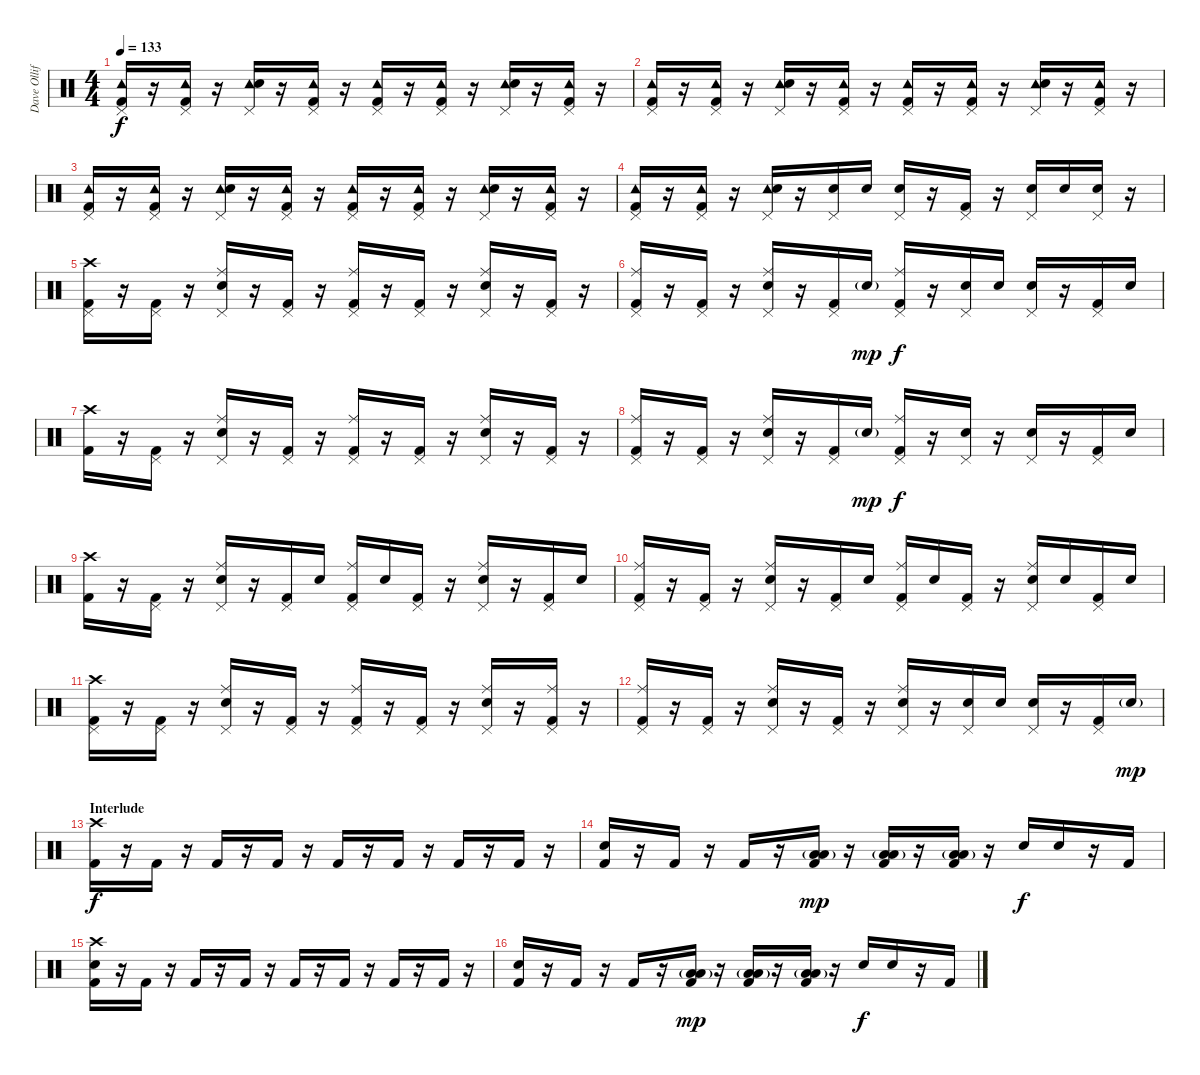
\track ("Dave Olliffe - Drums" "Dave Ollif") {instrument percussion}
\staff {score}
\articulation defaults
\ts (4 4)
\tempo 133
\clef neutral
\ks c
("Tambourine (hit)" "Pedal Hi-Hat (hit)" "Kick (hit) 2").16{dy f} r.16 ("Tambourine (hit)" "Pedal Hi-Hat (hit)" "Kick (hit) 2").16 r.16 ("Tambourine (hit)" "Pedal Hi-Hat (hit)" "Snare (hit) 2").16 r.16 ("Tambourine (hit)" "Pedal Hi-Hat (hit)" "Kick (hit) 2").16 r.16 ("Tambourine (hit)" "Pedal Hi-Hat (hit)" "Kick (hit) 2").16 r.16 ("Tambourine (hit)" "Pedal Hi-Hat (hit)" "Kick (hit) 2").16 r.16 ("Tambourine (hit)" "Pedal Hi-Hat (hit)" "Snare (hit) 2").16 r.16 ("Tambourine (hit)" "Pedal Hi-Hat (hit)" "Kick (hit) 2").16 r.16 |
("Tambourine (hit)" "Pedal Hi-Hat (hit)" "Kick (hit) 2").16 r.16 ("Tambourine (hit)" "Pedal Hi-Hat (hit)" "Kick (hit) 2").16 r.16 ("Tambourine (hit)" "Pedal Hi-Hat (hit)" "Snare (hit) 2").16 r.16 ("Tambourine (hit)" "Pedal Hi-Hat (hit)" "Kick (hit) 2").16 r.16 ("Tambourine (hit)" "Pedal Hi-Hat (hit)" "Kick (hit) 2").16 r.16 ("Tambourine (hit)" "Pedal Hi-Hat (hit)" "Kick (hit) 2").16 r.16 ("Tambourine (hit)" "Pedal Hi-Hat (hit)" "Snare (hit) 2").16 r.16 ("Tambourine (hit)" "Pedal Hi-Hat (hit)" "Kick (hit) 2").16 r.16 |
("Tambourine (hit)" "Pedal Hi-Hat (hit)" "Kick (hit) 2").16 r.16 ("Tambourine (hit)" "Pedal Hi-Hat (hit)" "Kick (hit) 2").16 r.16 ("Tambourine (hit)" "Pedal Hi-Hat (hit)" "Snare (hit) 2").16 r.16 ("Tambourine (hit)" "Pedal Hi-Hat (hit)" "Kick (hit) 2").16 r.16 ("Tambourine (hit)" "Pedal Hi-Hat (hit)" "Kick (hit) 2").16 r.16 ("Tambourine (hit)" "Pedal Hi-Hat (hit)" "Kick (hit) 2").16 r.16 ("Tambourine (hit)" "Pedal Hi-Hat (hit)" "Snare (hit) 2").16 r.16 ("Tambourine (hit)" "Pedal Hi-Hat (hit)" "Kick (hit) 2").16 r.16 |
("Tambourine (hit)" "Pedal Hi-Hat (hit)" "Kick (hit) 2").16 r.16 ("Tambourine (hit)" "Pedal Hi-Hat (hit)" "Kick (hit) 2").16 r.16 ("Tambourine (hit)" "Pedal Hi-Hat (hit)" "Snare (hit) 2").16 r.16 ("Pedal Hi-Hat (hit)" "Snare (hit) 2").16 "Snare (hit) 2".16 ("Pedal Hi-Hat (hit)" "Snare (hit) 2").16 r.16 ("Pedal Hi-Hat (hit)" "Kick (hit) 2").16 r.16 ("Pedal Hi-Hat (hit)" "Snare (hit) 2").16 "Snare (hit) 2".16 ("Pedal Hi-Hat (hit)" "Snare (hit) 2").16 r.16 |
("Crash high (hit)" "Pedal Hi-Hat (hit)" "Kick (hit) 2").16 r.16 ("Pedal Hi-Hat (hit)" "Kick (hit) 2").16 r.16 ("Ride (middle)" "Pedal Hi-Hat (hit)" "Snare (hit) 2").16 r.16 ("Pedal Hi-Hat (hit)" "Kick (hit) 2").16 r.16 ("Ride (middle)" "Pedal Hi-Hat (hit)" "Kick (hit) 2").16 r.16 ("Pedal Hi-Hat (hit)" "Kick (hit) 2").16 r.16 ("Ride (middle)" "Pedal Hi-Hat (hit)" "Snare (hit) 2").16 r.16 ("Pedal Hi-Hat (hit)" "Kick (hit) 2").16 r.16 |
("Ride (middle)" "Pedal Hi-Hat (hit)" "Kick (hit) 2").16 r.16 ("Pedal Hi-Hat (hit)" "Kick (hit) 2").16 r.16 ("Ride (middle)" "Pedal Hi-Hat (hit)" "Snare (hit) 2").16 r.16 ("Pedal Hi-Hat (hit)" "Kick (hit) 2").16 "Snare (hit) 2"{g}.16{dy mp} ("Ride (middle)" "Pedal Hi-Hat (hit)" "Kick (hit) 2").16{dy f} r.16 ("Pedal Hi-Hat (hit)" "Snare (hit) 2").16 "Snare (hit) 2".16 ("Pedal Hi-Hat (hit)" "Snare (hit) 2").16 r.16 ("Pedal Hi-Hat (hit)" "Kick (hit) 2").16 "Snare (hit) 2".16 |
("Crash high (hit)" "Kick (hit) 2").16 r.16 ("Pedal Hi-Hat (hit)" "Kick (hit) 2").16 r.16 ("Ride (middle)" "Pedal Hi-Hat (hit)" "Snare (hit) 2").16 r.16 ("Pedal Hi-Hat (hit)" "Kick (hit) 2").16 r.16 ("Ride (middle)" "Pedal Hi-Hat (hit)" "Kick (hit) 2").16 r.16 ("Pedal Hi-Hat (hit)" "Kick (hit) 2").16 r.16 ("Ride (middle)" "Pedal Hi-Hat (hit)" "Snare (hit) 2").16 r.16 ("Pedal Hi-Hat (hit)" "Kick (hit) 2").16 r.16 |
("Ride (middle)" "Pedal Hi-Hat (hit)" "Kick (hit) 2").16 r.16 ("Pedal Hi-Hat (hit)" "Kick (hit) 2").16 r.16 ("Ride (middle)" "Pedal Hi-Hat (hit)" "Snare (hit) 2").16 r.16 ("Pedal Hi-Hat (hit)" "Kick (hit) 2").16 "Snare (hit) 2"{g}.16{dy mp} ("Ride (middle)" "Pedal Hi-Hat (hit)" "Kick (hit) 2").16{dy f} r.16 ("Pedal Hi-Hat (hit)" "Snare (hit) 2").16 r.16 ("Pedal Hi-Hat (hit)" "Snare (hit) 2").16 r.16 ("Pedal Hi-Hat (hit)" "Kick (hit) 2").16 "Snare (hit) 2".16 |
("Crash high (hit)" "Kick (hit) 2").16 r.16 ("Pedal Hi-Hat (hit)" "Kick (hit) 2").16 r.16 ("Ride (middle)" "Pedal Hi-Hat (hit)" "Snare (hit) 2").16 r.16 ("Pedal Hi-Hat (hit)" "Kick (hit) 2").16 "Snare (hit) 2".16 ("Ride (middle)" "Pedal Hi-Hat (hit)" "Kick (hit) 2").16 "Snare (hit) 2".16 ("Pedal Hi-Hat (hit)" "Kick (hit) 2").16 r.16 ("Ride (middle)" "Pedal Hi-Hat (hit)" "Snare (hit) 2").16 r.16 ("Pedal Hi-Hat (hit)" "Kick (hit) 2").16 "Snare (hit) 2".16 |
("Ride (middle)" "Pedal Hi-Hat (hit)" "Kick (hit) 2").16 r.16 ("Pedal Hi-Hat (hit)" "Kick (hit) 2").16 r.16 ("Ride (middle)" "Pedal Hi-Hat (hit)" "Snare (hit) 2").16 r.16 ("Pedal Hi-Hat (hit)" "Kick (hit) 2").16 "Snare (hit) 2".16 ("Ride (middle)" "Pedal Hi-Hat (hit)" "Kick (hit) 2").16 "Snare (hit) 2".16 ("Pedal Hi-Hat (hit)" "Kick (hit) 2").16 r.16 ("Ride (middle)" "Pedal Hi-Hat (hit)" "Snare (hit) 2").16 "Snare (hit) 2".16 ("Pedal Hi-Hat (hit)" "Kick (hit) 2").16 "Snare (hit) 2".16 |
("Crash high (hit)" "Pedal Hi-Hat (hit)" "Kick (hit) 2").16 r.16 ("Pedal Hi-Hat (hit)" "Kick (hit) 2").16 r.16 ("Ride (middle)" "Pedal Hi-Hat (hit)" "Snare (hit) 2").16 r.16 ("Pedal Hi-Hat (hit)" "Kick (hit) 2").16 r.16 ("Ride (middle)" "Pedal Hi-Hat (hit)" "Kick (hit) 2").16 r.16 ("Pedal Hi-Hat (hit)" "Kick (hit) 2").16 r.16 ("Ride (middle)" "Pedal Hi-Hat (hit)" "Snare (hit) 2").16 r.16 ("Ride (middle)" "Pedal Hi-Hat (hit)" "Kick (hit) 2").16 r.16 |
("Ride (middle)" "Pedal Hi-Hat (hit)" "Kick (hit) 2").16 r.16 ("Pedal Hi-Hat (hit)" "Kick (hit) 2").16 r.16 ("Ride (middle)" "Pedal Hi-Hat (hit)" "Snare (hit) 2").16 r.16 ("Pedal Hi-Hat (hit)" "Kick (hit) 2").16 r.16 ("Ride (middle)" "Pedal Hi-Hat (hit)" "Snare (hit) 2").16 r.16 ("Pedal Hi-Hat (hit)" "Snare (hit) 2").16 "Snare (hit) 2".16 ("Pedal Hi-Hat (hit)" "Snare (hit) 2").16 r.16 ("Pedal Hi-Hat (hit)" "Kick (hit) 2").16 "Snare (hit) 2"{g}.16{dy mp} |
\section ("" "Interlude")
("Crash high (hit)" "Kick (hit) 2").16{dy f} r.16 "Kick (hit) 2".16 r.16 "Kick (hit) 2".16 r.16 "Kick (hit) 2".16 r.16 "Kick (hit) 2".16 r.16 "Kick (hit) 2".16 r.16 "Kick (hit) 2".16 r.16 "Kick (hit) 2".16 r.16 |
("Snare (hit) 2" "Kick (hit) 2").16 r.16 "Kick (hit) 2".16 r.16 "Kick (hit) 2".16 r.16 ("Low Tom (hit)"{g} "Low Tom (hit)"{g} "Kick (hit) 2").16{bd 60 dy mp} r.16 ("Low Tom (hit)"{g} "Low Tom (hit)"{g} "Kick (hit) 2").16{bd 60} r.16 ("Low Tom (hit)"{g} "Low Tom (hit)"{g} "Kick (hit) 2").16{bd 60} r.16 "Snare (hit) 2".16{dy f} "Snare (hit) 2".16 r.16 "Kick (hit) 2".16 |
("Crash high (hit)" "Snare (hit) 2" "Kick (hit) 2").16 r.16 "Kick (hit) 2".16 r.16 "Kick (hit) 2".16 r.16 "Kick (hit) 2".16 r.16 "Kick (hit) 2".16 r.16 "Kick (hit) 2".16 r.16 "Kick (hit) 2".16 r.16 "Kick (hit) 2".16 r.16 |
("Snare (hit) 2" "Kick (hit) 2").16 r.16 "Kick (hit) 2".16 r.16 "Kick (hit) 2".16 r.16 ("Low Tom (hit)"{g} "Low Tom (hit)"{g} "Kick (hit) 2").16{bd 60 dy mp} r.16 ("Low Tom (hit)"{g} "Low Tom (hit)"{g} "Kick (hit) 2").16{bd 60} r.16 ("Low Tom (hit)"{g} "Low Tom (hit)"{g} "Kick (hit) 2").16{bd 60} r.16 "Snare (hit) 2".16{dy f} "Snare (hit) 2".16 r.16 "Kick (hit) 2".16
